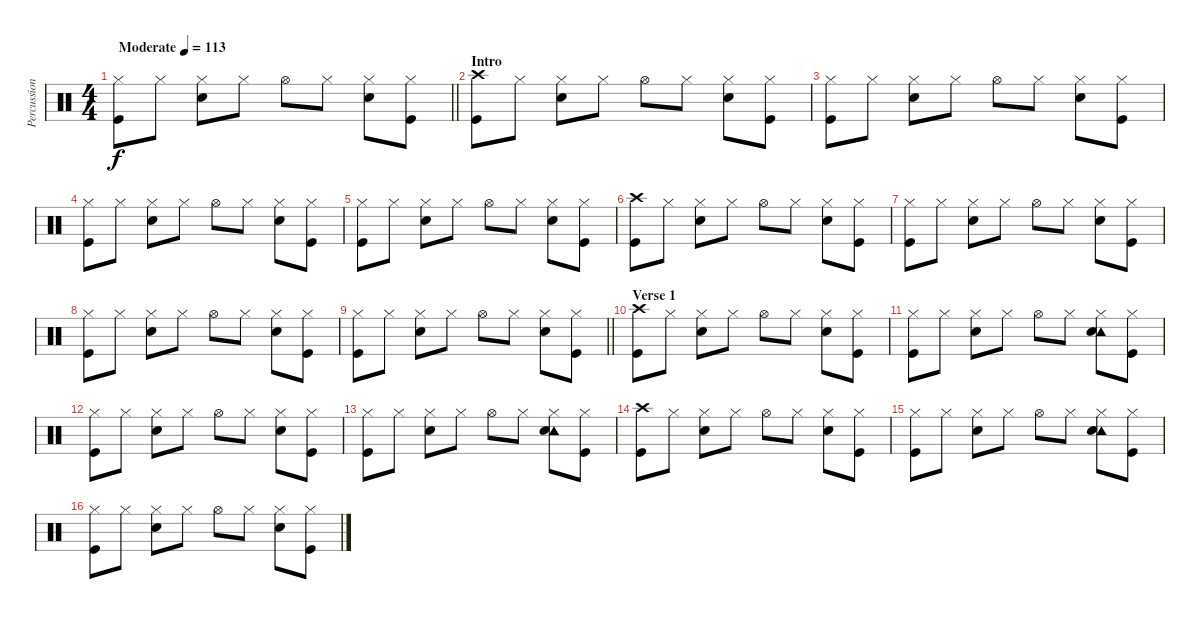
\track ("Percussion" "Percussion") {instrument percussion}
\staff {score}
\articulation defaults
\ts (4 4)
\tempo (113 "Moderate")
\clef neutral
\barLineRight lightlight
\ks c
("Hi-Hat (closed)" "Kick (hit)").8{dy f} "Hi-Hat (closed)".8 ("Hi-Hat (closed)" "Snare (hit) 2").8 "Hi-Hat (closed)".8 "Hi-Hat (open)".8 "Hi-Hat (closed)".8 ("Hi-Hat (closed)" "Snare (hit) 2").8 ("Hi-Hat (closed)" "Kick (hit)").8 |
\section ("" "Intro")
("Crash high (hit)" "Kick (hit)").8 "Hi-Hat (closed)".8 ("Hi-Hat (closed)" "Snare (hit) 2").8 "Hi-Hat (closed)".8 "Hi-Hat (open)".8 "Hi-Hat (closed)".8 ("Hi-Hat (closed)" "Snare (hit) 2").8 ("Hi-Hat (closed)" "Kick (hit)").8 |
("Hi-Hat (closed)" "Kick (hit)").8 "Hi-Hat (closed)".8 ("Hi-Hat (closed)" "Snare (hit) 2").8 "Hi-Hat (closed)".8 "Hi-Hat (open)".8 "Hi-Hat (closed)".8 ("Hi-Hat (closed)" "Snare (hit) 2").8 ("Hi-Hat (closed)" "Kick (hit)").8 |
("Hi-Hat (closed)" "Kick (hit)").8 "Hi-Hat (closed)".8 ("Hi-Hat (closed)" "Snare (hit) 2").8 "Hi-Hat (closed)".8 "Hi-Hat (open)".8 "Hi-Hat (closed)".8 ("Hi-Hat (closed)" "Snare (hit) 2").8 ("Hi-Hat (closed)" "Kick (hit)").8 |
("Hi-Hat (closed)" "Kick (hit)").8 "Hi-Hat (closed)".8 ("Hi-Hat (closed)" "Snare (hit) 2").8 "Hi-Hat (closed)".8 "Hi-Hat (open)".8 "Hi-Hat (closed)".8 ("Hi-Hat (closed)" "Snare (hit) 2").8 ("Hi-Hat (closed)" "Kick (hit)").8 |
("Crash high (hit)" "Kick (hit)").8 "Hi-Hat (closed)".8 ("Hi-Hat (closed)" "Snare (hit) 2").8 "Hi-Hat (closed)".8 "Hi-Hat (open)".8 "Hi-Hat (closed)".8 ("Hi-Hat (closed)" "Snare (hit) 2").8 ("Hi-Hat (closed)" "Kick (hit)").8 |
("Hi-Hat (closed)" "Kick (hit)").8 "Hi-Hat (closed)".8 ("Hi-Hat (closed)" "Snare (hit) 2").8 "Hi-Hat (closed)".8 "Hi-Hat (open)".8 "Hi-Hat (closed)".8 ("Hi-Hat (closed)" "Snare (hit) 2").8 ("Hi-Hat (closed)" "Kick (hit)").8 |
("Hi-Hat (closed)" "Kick (hit)").8 "Hi-Hat (closed)".8 ("Hi-Hat (closed)" "Snare (hit) 2").8 "Hi-Hat (closed)".8 "Hi-Hat (open)".8 "Hi-Hat (closed)".8 ("Hi-Hat (closed)" "Snare (hit) 2").8 ("Hi-Hat (closed)" "Kick (hit)").8 |
\barLineRight lightlight
("Hi-Hat (closed)" "Kick (hit)").8 "Hi-Hat (closed)".8 ("Hi-Hat (closed)" "Snare (hit) 2").8 "Hi-Hat (closed)".8 "Hi-Hat (open)".8 "Hi-Hat (closed)".8 ("Hi-Hat (closed)" "Snare (hit) 2").8 ("Hi-Hat (closed)" "Kick (hit)").8 |
\section ("" "Verse 1")
("Crash high (hit)" "Kick (hit)").8 "Hi-Hat (closed)".8 ("Hi-Hat (closed)" "Snare (hit) 2").8 "Hi-Hat (closed)".8 "Hi-Hat (open)".8 "Hi-Hat (closed)".8 ("Hi-Hat (closed)" "Snare (hit) 2").8 ("Hi-Hat (closed)" "Kick (hit)").8 |
("Hi-Hat (closed)" "Kick (hit)").8 "Hi-Hat (closed)".8 ("Hi-Hat (closed)" "Snare (hit) 2").8 "Hi-Hat (closed)".8 "Hi-Hat (open)".8 "Hi-Hat (closed)".8 ("Hi-Hat (closed)" "Tambourine (hit)" "Snare (hit) 2").8 ("Hi-Hat (closed)" "Kick (hit)").8 |
("Hi-Hat (closed)" "Kick (hit)").8 "Hi-Hat (closed)".8 ("Hi-Hat (closed)" "Snare (hit) 2").8 "Hi-Hat (closed)".8 "Hi-Hat (open)".8 "Hi-Hat (closed)".8 ("Hi-Hat (closed)" "Snare (hit) 2").8 ("Hi-Hat (closed)" "Kick (hit)").8 |
("Hi-Hat (closed)" "Kick (hit)").8 "Hi-Hat (closed)".8 ("Hi-Hat (closed)" "Snare (hit) 2").8 "Hi-Hat (closed)".8 "Hi-Hat (open)".8 "Hi-Hat (closed)".8 ("Hi-Hat (closed)" "Tambourine (hit)" "Snare (hit) 2").8 ("Hi-Hat (closed)" "Kick (hit)").8 |
("Crash high (hit)" "Kick (hit)").8 "Hi-Hat (closed)".8 ("Hi-Hat (closed)" "Snare (hit) 2").8 "Hi-Hat (closed)".8 "Hi-Hat (open)".8 "Hi-Hat (closed)".8 ("Hi-Hat (closed)" "Snare (hit) 2").8 ("Hi-Hat (closed)" "Kick (hit)").8 |
("Hi-Hat (closed)" "Kick (hit)").8 "Hi-Hat (closed)".8 ("Hi-Hat (closed)" "Snare (hit) 2").8 "Hi-Hat (closed)".8 "Hi-Hat (open)".8 "Hi-Hat (closed)".8 ("Hi-Hat (closed)" "Tambourine (hit)" "Snare (hit) 2").8 ("Hi-Hat (closed)" "Kick (hit)").8 |
("Hi-Hat (closed)" "Kick (hit)").8 "Hi-Hat (closed)".8 ("Hi-Hat (closed)" "Snare (hit) 2").8 "Hi-Hat (closed)".8 "Hi-Hat (open)".8 "Hi-Hat (closed)".8 ("Hi-Hat (closed)" "Snare (hit) 2").8 ("Hi-Hat (closed)" "Kick (hit)").8
